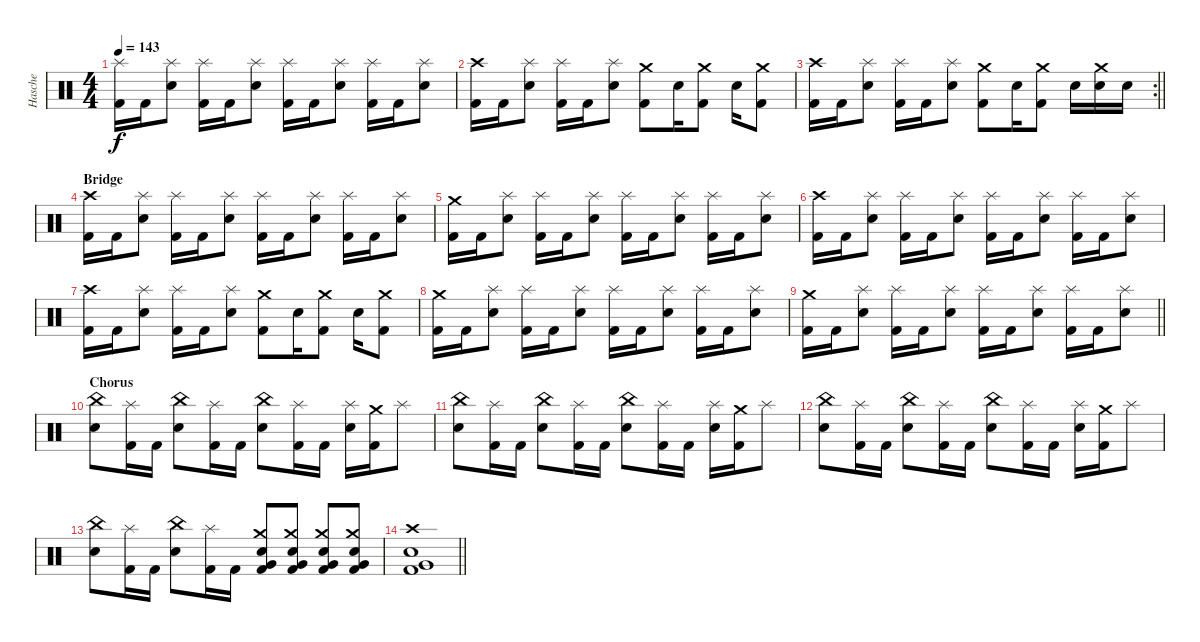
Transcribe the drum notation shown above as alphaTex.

\track ("Hasche" "Hasche") {instrument percussion}
\staff {score}
\articulation defaults
\ts (4 4)
\tempo 143
\clef neutral
\ks c
("Splash (hit)" "Kick (hit) 2").16{dy f} "Kick (hit) 2".16 ("Splash (hit)" "Snare (hit) 2").8 ("Splash (hit)" "Kick (hit) 2").16 "Kick (hit) 2".16 ("Splash (hit)" "Snare (hit) 2").8 ("Splash (hit)" "Kick (hit) 2").16 "Kick (hit) 2".16 ("Splash (hit)" "Snare (hit) 2").8 ("Splash (hit)" "Kick (hit) 2").16 "Kick (hit) 2".16 ("Splash (hit)" "Snare (hit) 2").8 |
("Crash high (hit)" "Kick (hit) 2").16 "Kick (hit) 2".16 ("Splash (hit)" "Snare (hit) 2").8 ("Splash (hit)" "Kick (hit) 2").16 "Kick (hit) 2".16 ("Splash (hit)" "Snare (hit) 2").8 ("Crash medium (hit)" "Kick (hit) 2").8 "Snare (hit) 2".16 ("Crash medium (hit)" "Kick (hit) 2").8 "Snare (hit) 2".16 ("Crash medium (hit)" "Kick (hit) 2").8 |
\rc 2
\barLineRight lightlight
("Crash high (hit)" "Kick (hit) 2").16 "Kick (hit) 2".16 ("Splash (hit)" "Snare (hit) 2").8 ("Splash (hit)" "Kick (hit) 2").16 "Kick (hit) 2".16 ("Splash (hit)" "Snare (hit) 2").8 ("Crash medium (hit)" "Kick (hit) 2").8 "Snare (hit) 2".16 ("Crash medium (hit)" "Kick (hit) 2").8 "Snare (hit) 2".16 ("Crash medium (hit)" "Snare (hit) 2").16 "Snare (hit) 2".16 |
\section ("" "Bridge")
("Crash high (hit)" "Kick (hit) 2").16 "Kick (hit) 2".16 ("Splash (hit)" "Snare (hit) 2").8 ("Splash (hit)" "Kick (hit) 2").16 "Kick (hit) 2".16 ("Splash (hit)" "Snare (hit) 2").8 ("Splash (hit)" "Kick (hit) 2").16 "Kick (hit) 2".16 ("Splash (hit)" "Snare (hit) 2").8 ("Splash (hit)" "Kick (hit) 2").16 "Kick (hit) 2".16 ("Splash (hit)" "Snare (hit) 2").8 |
("Crash medium (hit)" "Kick (hit) 2").16 "Kick (hit) 2".16 ("Splash (hit)" "Snare (hit) 2").8 ("Splash (hit)" "Kick (hit) 2").16 "Kick (hit) 2".16 ("Splash (hit)" "Snare (hit) 2").8 ("Splash (hit)" "Kick (hit) 2").16 "Kick (hit) 2".16 ("Splash (hit)" "Snare (hit) 2").8 ("Splash (hit)" "Kick (hit) 2").16 "Kick (hit) 2".16 ("Splash (hit)" "Snare (hit) 2").8 |
("Crash high (hit)" "Kick (hit) 2").16 "Kick (hit) 2".16 ("Splash (hit)" "Snare (hit) 2").8 ("Splash (hit)" "Kick (hit) 2").16 "Kick (hit) 2".16 ("Splash (hit)" "Snare (hit) 2").8 ("Splash (hit)" "Kick (hit) 2").16 "Kick (hit) 2".16 ("Splash (hit)" "Snare (hit) 2").8 ("Splash (hit)" "Kick (hit) 2").16 "Kick (hit) 2".16 ("Splash (hit)" "Snare (hit) 2").8 |
("Crash high (hit)" "Kick (hit) 2").16 "Kick (hit) 2".16 ("Splash (hit)" "Snare (hit) 2").8 ("Splash (hit)" "Kick (hit) 2").16 "Kick (hit) 2".16 ("Splash (hit)" "Snare (hit) 2").8 ("Crash medium (hit)" "Kick (hit) 2").8 "Snare (hit) 2".16 ("Crash medium (hit)" "Kick (hit) 2").8 "Snare (hit) 2".16 ("Crash medium (hit)" "Kick (hit) 2").8 |
("Crash medium (hit)" "Kick (hit) 2").16 "Kick (hit) 2".16 ("Splash (hit)" "Snare (hit) 2").8 ("Splash (hit)" "Kick (hit) 2").16 "Kick (hit) 2".16 ("Splash (hit)" "Snare (hit) 2").8 ("Splash (hit)" "Kick (hit) 2").16 "Kick (hit) 2".16 ("Splash (hit)" "Snare (hit) 2").8 ("Splash (hit)" "Kick (hit) 2").16 "Kick (hit) 2".16 ("Splash (hit)" "Snare (hit) 2").8 |
\barLineRight lightlight
("Crash medium (hit)" "Kick (hit) 2").16 "Kick (hit) 2".16 ("Splash (hit)" "Snare (hit) 2").8 ("Splash (hit)" "Kick (hit) 2").16 "Kick (hit) 2".16 ("Splash (hit)" "Snare (hit) 2").8 ("Splash (hit)" "Kick (hit) 2").16 "Kick (hit) 2".16 ("Splash (hit)" "Snare (hit) 2").8 ("Splash (hit)" "Kick (hit) 2").16 "Kick (hit) 2".16 ("Splash (hit)" "Snare (hit) 2").8 |
\section ("" "Chorus")
("China (hit)" "Snare (hit) 2").8 ("Splash (hit)" "Kick (hit) 2").16 "Kick (hit) 2".16 ("China (hit)" "Snare (hit) 2").8 ("Splash (hit)" "Kick (hit) 2").16 "Kick (hit) 2".16 ("China (hit)" "Snare (hit) 2").8 ("Splash (hit)" "Kick (hit) 2").16 "Kick (hit) 2".16 ("Splash (hit)" "Snare (hit) 2").16 ("Crash medium (hit)" "Kick (hit) 2").16 "Splash (hit)".8 |
("China (hit)" "Snare (hit) 2").8 ("Splash (hit)" "Kick (hit) 2").16 "Kick (hit) 2".16 ("China (hit)" "Snare (hit) 2").8 ("Splash (hit)" "Kick (hit) 2").16 "Kick (hit) 2".16 ("China (hit)" "Snare (hit) 2").8 ("Splash (hit)" "Kick (hit) 2").16 "Kick (hit) 2".16 ("Splash (hit)" "Snare (hit) 2").16 ("Crash medium (hit)" "Kick (hit) 2").16 "Splash (hit)".8 |
("China (hit)" "Snare (hit) 2").8 ("Splash (hit)" "Kick (hit) 2").16 "Kick (hit) 2".16 ("China (hit)" "Snare (hit) 2").8 ("Splash (hit)" "Kick (hit) 2").16 "Kick (hit) 2".16 ("China (hit)" "Snare (hit) 2").8 ("Splash (hit)" "Kick (hit) 2").16 "Kick (hit) 2".16 ("Splash (hit)" "Snare (hit) 2").16 ("Crash medium (hit)" "Kick (hit) 2").16 "Splash (hit)".8 |
("China (hit)" "Snare (hit) 2").8 ("Splash (hit)" "Kick (hit) 2").16 "Kick (hit) 2".16 ("China (hit)" "Snare (hit) 2").8 ("Splash (hit)" "Kick (hit) 2").16 "Kick (hit) 2".16 ("Crash medium (hit)" "Very Low Tom (hit)" "Snare (hit) 2" "Kick (hit) 2").8 ("Crash medium (hit)" "Very Low Tom (hit)" "Snare (hit) 2" "Kick (hit) 2").8 ("Crash medium (hit)" "Very Low Tom (hit)" "Snare (hit) 2" "Kick (hit) 2").8 ("Crash medium (hit)" "Very Low Tom (hit)" "Snare (hit) 2" "Kick (hit) 2").8 |
\barLineRight lightlight
("Crash high (hit)" "Very Low Tom (hit)" "Snare (hit) 2" "Kick (hit) 2").1
